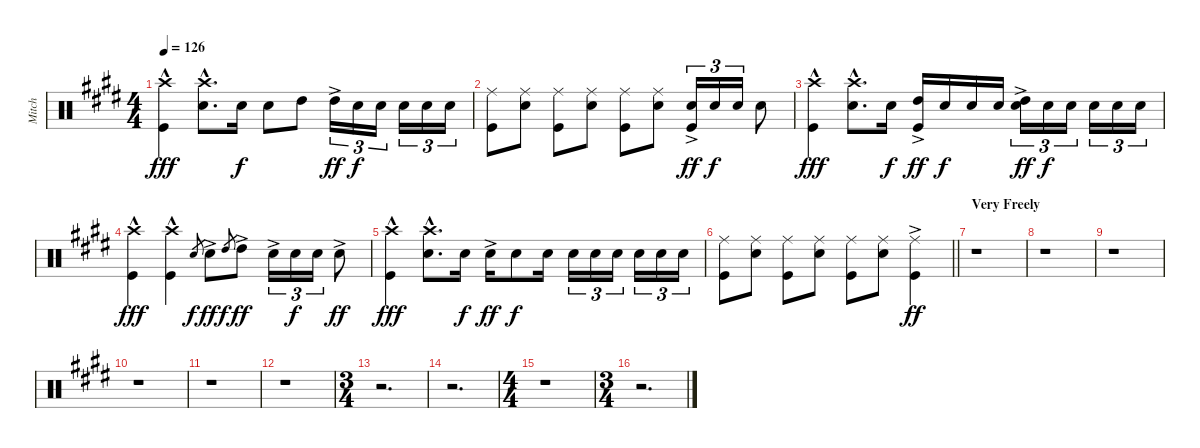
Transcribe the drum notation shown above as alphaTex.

\track ("Mitch" "Mitch") {instrument percussion}
\staff {score}
\articulation defaults
\ts (4 4)
\tempo 126
\clef neutral
\ks e
("Crash high (hit)"{hac} "Kick (hit)").4{dy fff} ("Crash high (hit)"{hac} "Snare (hit) 2").8{d} "Snare (hit) 2".16{dy f} "Snare (hit) 2".8 "High Tom (hit)".8 "High Tom (hit)"{ac}.16{tu (3 2) dy ff} "Snare (hit) 2".16{tu (3 2) dy f} "Snare (hit) 2".16{tu (3 2) beam splitsecondary} "Snare (hit) 2".16{tu (3 2)} "Snare (hit) 2".16{tu (3 2)} "Snare (hit) 2".16{tu (3 2)} |
("Ride (middle)" "Kick (hit)").8 ("Ride (middle)" "Snare (hit) 2").8 ("Ride (middle)" "Kick (hit)").8 ("Ride (middle)" "Snare (hit) 2").8 ("Ride (middle)" "Kick (hit)").8 ("Ride (middle)" "Snare (hit) 2").8 ("Snare (hit) 2"{ac} "Kick (hit)").16{tu (3 2) dy ff} "Snare (hit) 2".16{tu (3 2) dy f} "Snare (hit) 2".16{tu (3 2)} "Snare (hit) 2".8 |
("Crash high (hit)"{hac} "Kick (hit)").4{dy fff} ("Crash high (hit)"{hac} "Snare (hit) 2").8{d} "Snare (hit) 2".16{dy f} ("High Tom (hit)"{ac} "Kick (hit)").16{dy ff} "Snare (hit) 2".16{dy f} "Snare (hit) 2".16 "Snare (hit) 2".16 ("High Tom (hit)"{ac} "Snare (hit) 2").16{tu (3 2) dy ff} "Snare (hit) 2".16{tu (3 2) dy f} "Snare (hit) 2".16{tu (3 2) beam splitsecondary} "Snare (hit) 2".16{tu (3 2)} "Snare (hit) 2".16{tu (3 2)} "Snare (hit) 2".16{tu (3 2)} |
("Crash high (hit)"{hac} "Kick (hit)").4{dy fff} ("Crash high (hit)"{hac} "Kick (hit)").4 "Snare (hit) 2".8{gr dy f} "Snare (hit) 2"{ac}.8{dy ff} "High Tom (hit)".8{gr dy f} "High Tom (hit)"{ac}.8{dy ff} "Snare (hit) 2"{ac}.16{tu (3 2)} "Snare (hit) 2".16{tu (3 2) dy f} "Snare (hit) 2".16{tu (3 2)} "Snare (hit) 2"{ac}.8{dy ff} |
("Crash high (hit)"{hac} "Kick (hit)").4{dy fff} ("Crash high (hit)"{hac} "Snare (hit) 2").8{d} "Snare (hit) 2".16{dy f} "Snare (hit) 2"{ac}.16{dy ff} "Snare (hit) 2".8{dy f} "Snare (hit) 2".16 "Snare (hit) 2".16{tu (3 2)} "Snare (hit) 2".16{tu (3 2)} "Snare (hit) 2".16{tu (3 2) beam splitsecondary} "Snare (hit) 2".16{tu (3 2)} "Snare (hit) 2".16{tu (3 2)} "Snare (hit) 2".16{tu (3 2)} |
\barLineRight lightlight
("Ride (middle)" "Kick (hit)").8 ("Ride (middle)" "Snare (hit) 2").8 ("Ride (middle)" "Kick (hit)").8 ("Ride (middle)" "Snare (hit) 2").8 ("Ride (middle)" "Kick (hit)").8 ("Ride (middle)" "Snare (hit) 2").8 ("Ride (middle)"{ac} "Kick (hit)").4{dy ff} |
\section ("" "Very Freely")
r.1 |
r.1 |
r.1 |
r.1 |
r.1 |
r.1 |
\ts (3 4)
r.2{d} |
r.2{d} |
\ts (4 4)
r.1 |
\ts (3 4)
r.2{d}
